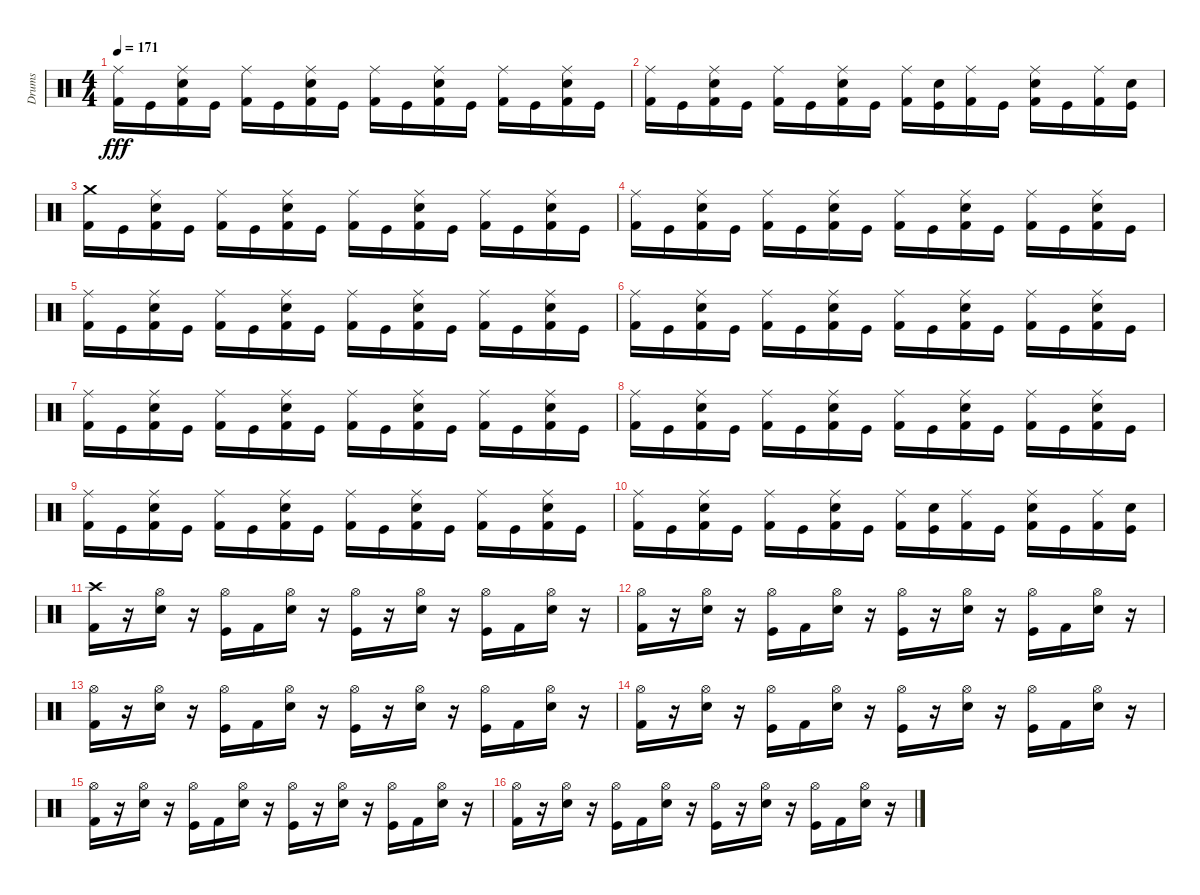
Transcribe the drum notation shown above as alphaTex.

\track ("Drums" "Drums") {instrument percussion}
\staff {score}
\articulation defaults
\ts (4 4)
\tempo 171
\clef neutral
\ks c
("Ride (middle)" "Kick (hit) 2").16{dy fff} "Kick (hit)".16 ("Ride (middle)" "Electric Snare (hit)" "Kick (hit) 2").16 "Kick (hit)".16 ("Ride (middle)" "Kick (hit) 2").16 "Kick (hit)".16 ("Ride (middle)" "Electric Snare (hit)" "Kick (hit) 2").16 "Kick (hit)".16 ("Ride (middle)" "Kick (hit) 2").16 "Kick (hit)".16 ("Ride (middle)" "Electric Snare (hit)" "Kick (hit) 2").16 "Kick (hit)".16 ("Ride (middle)" "Kick (hit) 2").16 "Kick (hit)".16 ("Ride (middle)" "Electric Snare (hit)" "Kick (hit) 2").16 "Kick (hit)".16 |
("Ride (middle)" "Kick (hit) 2").16 "Kick (hit)".16 ("Ride (middle)" "Electric Snare (hit)" "Kick (hit) 2").16 "Kick (hit)".16 ("Ride (middle)" "Kick (hit) 2").16 "Kick (hit)".16 ("Ride (middle)" "Electric Snare (hit)" "Kick (hit) 2").16 "Kick (hit)".16 ("Ride (middle)" "Kick (hit) 2").16 ("Electric Snare (hit)" "Kick (hit)").16 ("Ride (middle)" "Kick (hit) 2").16 "Kick (hit)".16 ("Ride (middle)" "Electric Snare (hit)" "Kick (hit) 2").16 "Kick (hit)".16 ("Ride (middle)" "Kick (hit) 2").16 ("Electric Snare (hit)" "Kick (hit)").16 |
("Crash medium (hit)" "Kick (hit) 2").16 "Kick (hit)".16 ("Ride (middle)" "Electric Snare (hit)" "Kick (hit) 2").16 "Kick (hit)".16 ("Ride (middle)" "Kick (hit) 2").16 "Kick (hit)".16 ("Ride (middle)" "Electric Snare (hit)" "Kick (hit) 2").16 "Kick (hit)".16 ("Ride (middle)" "Kick (hit) 2").16 "Kick (hit)".16 ("Ride (middle)" "Electric Snare (hit)" "Kick (hit) 2").16 "Kick (hit)".16 ("Ride (middle)" "Kick (hit) 2").16 "Kick (hit)".16 ("Ride (middle)" "Electric Snare (hit)" "Kick (hit) 2").16 "Kick (hit)".16 |
("Ride (middle)" "Kick (hit) 2").16 "Kick (hit)".16 ("Ride (middle)" "Electric Snare (hit)" "Kick (hit) 2").16 "Kick (hit)".16 ("Ride (middle)" "Kick (hit) 2").16 "Kick (hit)".16 ("Ride (middle)" "Electric Snare (hit)" "Kick (hit) 2").16 "Kick (hit)".16 ("Ride (middle)" "Kick (hit) 2").16 "Kick (hit)".16 ("Ride (middle)" "Electric Snare (hit)" "Kick (hit) 2").16 "Kick (hit)".16 ("Ride (middle)" "Kick (hit) 2").16 "Kick (hit)".16 ("Ride (middle)" "Electric Snare (hit)" "Kick (hit) 2").16 "Kick (hit)".16 |
("Ride (middle)" "Kick (hit) 2").16 "Kick (hit)".16 ("Ride (middle)" "Electric Snare (hit)" "Kick (hit) 2").16 "Kick (hit)".16 ("Ride (middle)" "Kick (hit) 2").16 "Kick (hit)".16 ("Ride (middle)" "Electric Snare (hit)" "Kick (hit) 2").16 "Kick (hit)".16 ("Ride (middle)" "Kick (hit) 2").16 "Kick (hit)".16 ("Ride (middle)" "Electric Snare (hit)" "Kick (hit) 2").16 "Kick (hit)".16 ("Ride (middle)" "Kick (hit) 2").16 "Kick (hit)".16 ("Ride (middle)" "Electric Snare (hit)" "Kick (hit) 2").16 "Kick (hit)".16 |
("Ride (middle)" "Kick (hit) 2").16 "Kick (hit)".16 ("Ride (middle)" "Electric Snare (hit)" "Kick (hit) 2").16 "Kick (hit)".16 ("Ride (middle)" "Kick (hit) 2").16 "Kick (hit)".16 ("Ride (middle)" "Electric Snare (hit)" "Kick (hit) 2").16 "Kick (hit)".16 ("Ride (middle)" "Kick (hit) 2").16 "Kick (hit)".16 ("Ride (middle)" "Electric Snare (hit)" "Kick (hit) 2").16 "Kick (hit)".16 ("Ride (middle)" "Kick (hit) 2").16 "Kick (hit)".16 ("Ride (middle)" "Electric Snare (hit)" "Kick (hit) 2").16 "Kick (hit)".16 |
("Ride (middle)" "Kick (hit) 2").16 "Kick (hit)".16 ("Ride (middle)" "Electric Snare (hit)" "Kick (hit) 2").16 "Kick (hit)".16 ("Ride (middle)" "Kick (hit) 2").16 "Kick (hit)".16 ("Ride (middle)" "Electric Snare (hit)" "Kick (hit) 2").16 "Kick (hit)".16 ("Ride (middle)" "Kick (hit) 2").16 "Kick (hit)".16 ("Ride (middle)" "Electric Snare (hit)" "Kick (hit) 2").16 "Kick (hit)".16 ("Ride (middle)" "Kick (hit) 2").16 "Kick (hit)".16 ("Ride (middle)" "Electric Snare (hit)" "Kick (hit) 2").16 "Kick (hit)".16 |
("Ride (middle)" "Kick (hit) 2").16 "Kick (hit)".16 ("Ride (middle)" "Electric Snare (hit)" "Kick (hit) 2").16 "Kick (hit)".16 ("Ride (middle)" "Kick (hit) 2").16 "Kick (hit)".16 ("Ride (middle)" "Electric Snare (hit)" "Kick (hit) 2").16 "Kick (hit)".16 ("Ride (middle)" "Kick (hit) 2").16 "Kick (hit)".16 ("Ride (middle)" "Electric Snare (hit)" "Kick (hit) 2").16 "Kick (hit)".16 ("Ride (middle)" "Kick (hit) 2").16 "Kick (hit)".16 ("Ride (middle)" "Electric Snare (hit)" "Kick (hit) 2").16 "Kick (hit)".16 |
("Ride (middle)" "Kick (hit) 2").16 "Kick (hit)".16 ("Ride (middle)" "Electric Snare (hit)" "Kick (hit) 2").16 "Kick (hit)".16 ("Ride (middle)" "Kick (hit) 2").16 "Kick (hit)".16 ("Ride (middle)" "Electric Snare (hit)" "Kick (hit) 2").16 "Kick (hit)".16 ("Ride (middle)" "Kick (hit) 2").16 "Kick (hit)".16 ("Ride (middle)" "Electric Snare (hit)" "Kick (hit) 2").16 "Kick (hit)".16 ("Ride (middle)" "Kick (hit) 2").16 "Kick (hit)".16 ("Ride (middle)" "Electric Snare (hit)" "Kick (hit) 2").16 "Kick (hit)".16 |
("Ride (middle)" "Kick (hit) 2").16 "Kick (hit)".16 ("Ride (middle)" "Electric Snare (hit)" "Kick (hit) 2").16 "Kick (hit)".16 ("Ride (middle)" "Kick (hit) 2").16 "Kick (hit)".16 ("Ride (middle)" "Electric Snare (hit)" "Kick (hit) 2").16 "Kick (hit)".16 ("Ride (middle)" "Kick (hit) 2").16 ("Electric Snare (hit)" "Kick (hit)").16 ("Ride (middle)" "Kick (hit) 2").16 "Kick (hit)".16 ("Ride (middle)" "Electric Snare (hit)" "Kick (hit) 2").16 "Kick (hit)".16 ("Ride (middle)" "Kick (hit) 2").16 ("Electric Snare (hit)" "Kick (hit)").16 |
("Crash high (hit)" "Kick (hit) 2").16 r.16 ("Hi-Hat (open)" "Electric Snare (hit)").16 r.16 ("Hi-Hat (open)" "Kick (hit)").16 "Kick (hit) 2".16 ("Hi-Hat (open)" "Electric Snare (hit)").16 r.16 ("Hi-Hat (open)" "Kick (hit)").16 r.16 ("Hi-Hat (open)" "Electric Snare (hit)").16 r.16 ("Hi-Hat (open)" "Kick (hit)").16 "Kick (hit) 2".16 ("Hi-Hat (open)" "Electric Snare (hit)").16 r.16 |
("Hi-Hat (open)" "Kick (hit) 2").16 r.16 ("Hi-Hat (open)" "Electric Snare (hit)").16 r.16 ("Hi-Hat (open)" "Kick (hit)").16 "Kick (hit) 2".16 ("Hi-Hat (open)" "Electric Snare (hit)").16 r.16 ("Hi-Hat (open)" "Kick (hit)").16 r.16 ("Hi-Hat (open)" "Electric Snare (hit)").16 r.16 ("Hi-Hat (open)" "Kick (hit)").16 "Kick (hit) 2".16 ("Hi-Hat (open)" "Electric Snare (hit)").16 r.16 |
("Hi-Hat (open)" "Kick (hit) 2").16 r.16 ("Hi-Hat (open)" "Electric Snare (hit)").16 r.16 ("Hi-Hat (open)" "Kick (hit)").16 "Kick (hit) 2".16 ("Hi-Hat (open)" "Electric Snare (hit)").16 r.16 ("Hi-Hat (open)" "Kick (hit)").16 r.16 ("Hi-Hat (open)" "Electric Snare (hit)").16 r.16 ("Hi-Hat (open)" "Kick (hit)").16 "Kick (hit) 2".16 ("Hi-Hat (open)" "Electric Snare (hit)").16 r.16 |
("Hi-Hat (open)" "Kick (hit) 2").16 r.16 ("Hi-Hat (open)" "Electric Snare (hit)").16 r.16 ("Hi-Hat (open)" "Kick (hit)").16 "Kick (hit) 2".16 ("Hi-Hat (open)" "Electric Snare (hit)").16 r.16 ("Hi-Hat (open)" "Kick (hit)").16 r.16 ("Hi-Hat (open)" "Electric Snare (hit)").16 r.16 ("Hi-Hat (open)" "Kick (hit)").16 "Kick (hit) 2".16 ("Hi-Hat (open)" "Electric Snare (hit)").16 r.16 |
("Hi-Hat (open)" "Kick (hit) 2").16 r.16 ("Hi-Hat (open)" "Electric Snare (hit)").16 r.16 ("Hi-Hat (open)" "Kick (hit)").16 "Kick (hit) 2".16 ("Hi-Hat (open)" "Electric Snare (hit)").16 r.16 ("Hi-Hat (open)" "Kick (hit)").16 r.16 ("Hi-Hat (open)" "Electric Snare (hit)").16 r.16 ("Hi-Hat (open)" "Kick (hit)").16 "Kick (hit) 2".16 ("Hi-Hat (open)" "Electric Snare (hit)").16 r.16 |
("Hi-Hat (open)" "Kick (hit) 2").16 r.16 ("Hi-Hat (open)" "Electric Snare (hit)").16 r.16 ("Hi-Hat (open)" "Kick (hit)").16 "Kick (hit) 2".16 ("Hi-Hat (open)" "Electric Snare (hit)").16 r.16 ("Hi-Hat (open)" "Kick (hit)").16 r.16 ("Hi-Hat (open)" "Electric Snare (hit)").16 r.16 ("Hi-Hat (open)" "Kick (hit)").16 "Kick (hit) 2".16 ("Hi-Hat (open)" "Electric Snare (hit)").16 r.16
